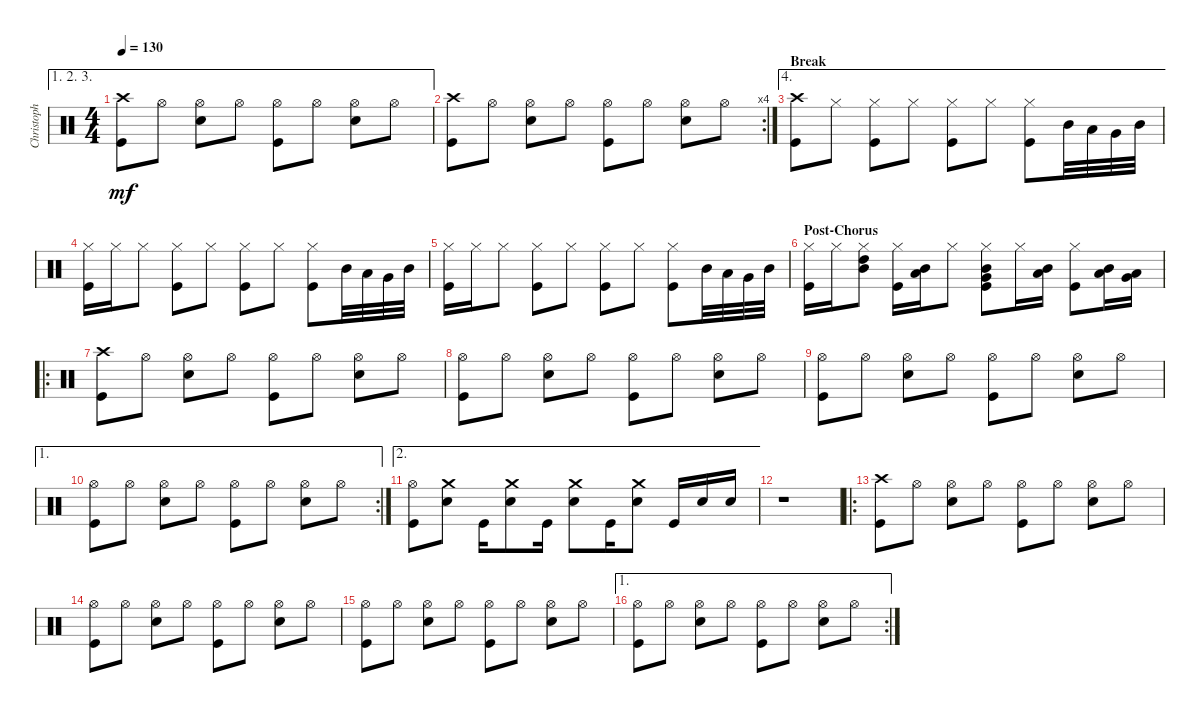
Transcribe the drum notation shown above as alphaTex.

\track ("Christoph Schneider" "Christoph ") {instrument percussion}
\staff {score}
\articulation defaults
\ae (1 2 3)
\ts (4 4)
\tempo 130
\clef neutral
\ks c
("Crash high (hit)" "Kick (hit)").8{dy mf} "Hi-Hat (open)".8 ("Hi-Hat (open)" "Snare (hit) 2").8 "Hi-Hat (open)".8 ("Hi-Hat (open)" "Kick (hit)").8 "Hi-Hat (open)".8 ("Hi-Hat (open)" "Snare (hit) 2").8 "Hi-Hat (open)".8 |
\rc 4
("Crash high (hit)" "Kick (hit)").8 "Hi-Hat (open)".8 ("Hi-Hat (open)" "Snare (hit) 2").8 "Hi-Hat (open)".8 ("Hi-Hat (open)" "Kick (hit)").8 "Hi-Hat (open)".8 ("Hi-Hat (open)" "Snare (hit) 2").8 "Hi-Hat (open)".8 |
\ae 4
\section ("" "Break")
("Crash high (hit)" "Kick (hit)").8 "Hi-Hat (closed)".8 ("Hi-Hat (closed)" "Kick (hit)").8 "Hi-Hat (closed)".8 ("Hi-Hat (closed)" "Kick (hit)").8 "Hi-Hat (closed)".8 ("Hi-Hat (closed)" "Kick (hit)").8 "Mid Tom (hit)".32 "Low Tom (hit)".32 "Very Low Tom (hit)".32 "Mid Tom (hit)".32 |
("Hi-Hat (closed)" "Kick (hit)").16 "Hi-Hat (closed)".16 "Hi-Hat (closed)".8 ("Hi-Hat (closed)" "Kick (hit)").8 "Hi-Hat (closed)".8 ("Hi-Hat (closed)" "Kick (hit)").8 "Hi-Hat (closed)".8 ("Hi-Hat (closed)" "Kick (hit)").8 "Mid Tom (hit)".32 "Low Tom (hit)".32 "Very Low Tom (hit)".32 "Mid Tom (hit)".32 |
("Hi-Hat (closed)" "Kick (hit)").16 "Hi-Hat (closed)".16 "Hi-Hat (closed)".8 ("Hi-Hat (closed)" "Kick (hit)").8 "Hi-Hat (closed)".8 ("Hi-Hat (closed)" "Kick (hit)").8 "Hi-Hat (closed)".8 ("Hi-Hat (closed)" "Kick (hit)").8 "Mid Tom (hit)".32 "Low Tom (hit)".32 "Very Low Tom (hit)".32 "Mid Tom (hit)".32 |
\section ("" "Post-Chorus")
("Hi-Hat (closed)" "Kick (hit)").16 "Hi-Hat (closed)".16 ("Hi-Hat (closed)" "High Tom (hit)" "Mid Tom (hit)").8 ("Hi-Hat (closed)" "Kick (hit)").16 ("Mid Tom (hit)" "Low Tom (hit)").16 "Hi-Hat (closed)".8 ("Hi-Hat (closed)" "Mid Tom (hit)" "Very Low Tom (hit)" "Kick (hit)").8 "Hi-Hat (closed)".16 ("Mid Tom (hit)" "Low Floor Tom (hit)").16 ("Hi-Hat (closed)" "Kick (hit)").8 ("Mid Tom (hit)" "Low Floor Tom (hit)").16 ("Low Tom (hit)" "Very Low Tom (hit)").16 |
\ro
("Crash high (hit)" "Kick (hit)").8 "Hi-Hat (open)".8 ("Hi-Hat (open)" "Snare (hit) 2").8 "Hi-Hat (open)".8 ("Hi-Hat (open)" "Kick (hit)").8 "Hi-Hat (open)".8 ("Hi-Hat (open)" "Snare (hit) 2").8 "Hi-Hat (open)".8 |
("Hi-Hat (open)" "Kick (hit)").8 "Hi-Hat (open)".8 ("Hi-Hat (open)" "Snare (hit) 2").8 "Hi-Hat (open)".8 ("Hi-Hat (open)" "Kick (hit)").8 "Hi-Hat (open)".8 ("Hi-Hat (open)" "Snare (hit) 2").8 "Hi-Hat (open)".8 |
("Hi-Hat (open)" "Kick (hit)").8 "Hi-Hat (open)".8 ("Hi-Hat (open)" "Snare (hit) 2").8 "Hi-Hat (open)".8 ("Hi-Hat (open)" "Kick (hit)").8 "Hi-Hat (open)".8 ("Hi-Hat (open)" "Snare (hit) 2").8 "Hi-Hat (open)".8 |
\ae 1
\rc 2
("Hi-Hat (open)" "Kick (hit)").8 "Hi-Hat (open)".8 ("Hi-Hat (open)" "Snare (hit) 2").8 "Hi-Hat (open)".8 ("Hi-Hat (open)" "Kick (hit)").8 "Hi-Hat (open)".8 ("Hi-Hat (open)" "Snare (hit) 2").8 "Hi-Hat (open)".8 |
\ae 2
("Hi-Hat (open)" "Kick (hit)").8 ("Crash medium (hit)" "Snare (hit) 2").8 "Kick (hit)".16 ("Crash medium (hit)" "Snare (hit) 2").8 "Kick (hit)".16 ("Crash medium (hit)" "Snare (hit) 2").8 "Kick (hit)".16 ("Crash medium (hit)" "Snare (hit) 2").8 "Kick (hit)".16 "Snare (hit) 2".16 "Snare (hit) 2".16 |
r.1 |
\ro
("Crash high (hit)" "Kick (hit)").8 "Hi-Hat (open)".8 ("Hi-Hat (open)" "Snare (hit) 2").8 "Hi-Hat (open)".8 ("Hi-Hat (open)" "Kick (hit)").8 "Hi-Hat (open)".8 ("Hi-Hat (open)" "Snare (hit) 2").8 "Hi-Hat (open)".8 |
("Hi-Hat (open)" "Kick (hit)").8 "Hi-Hat (open)".8 ("Hi-Hat (open)" "Snare (hit) 2").8 "Hi-Hat (open)".8 ("Hi-Hat (open)" "Kick (hit)").8 "Hi-Hat (open)".8 ("Hi-Hat (open)" "Snare (hit) 2").8 "Hi-Hat (open)".8 |
("Hi-Hat (open)" "Kick (hit)").8 "Hi-Hat (open)".8 ("Hi-Hat (open)" "Snare (hit) 2").8 "Hi-Hat (open)".8 ("Hi-Hat (open)" "Kick (hit)").8 "Hi-Hat (open)".8 ("Hi-Hat (open)" "Snare (hit) 2").8 "Hi-Hat (open)".8 |
\ae 1
\rc 2
("Hi-Hat (open)" "Kick (hit)").8 "Hi-Hat (open)".8 ("Hi-Hat (open)" "Snare (hit) 2").8 "Hi-Hat (open)".8 ("Hi-Hat (open)" "Kick (hit)").8 "Hi-Hat (open)".8 ("Hi-Hat (open)" "Snare (hit) 2").8 "Hi-Hat (open)".8
